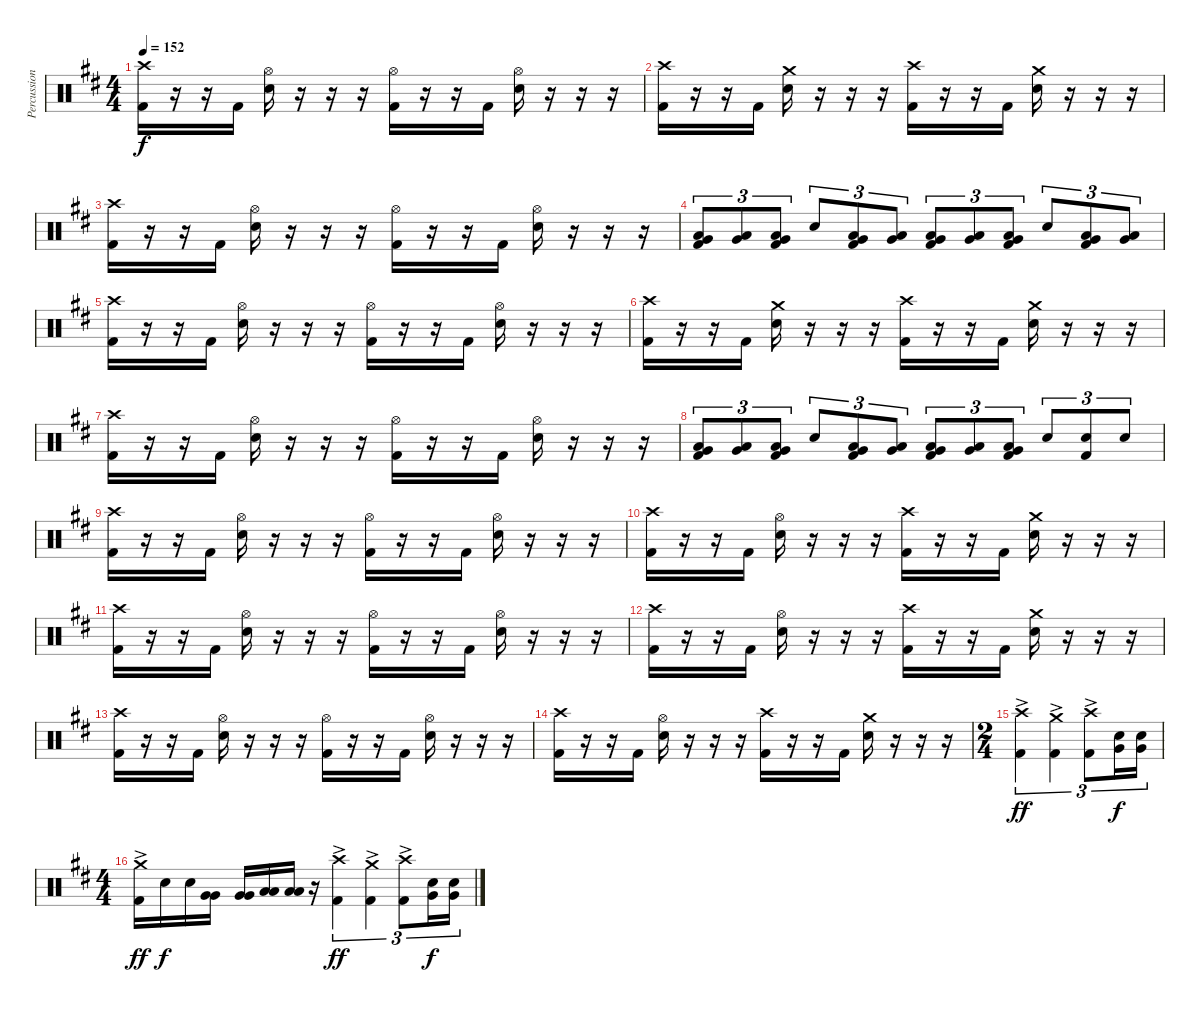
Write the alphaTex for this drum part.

\track ("Percussion" "Percussion") {instrument percussion}
\staff {score}
\articulation defaults
\ts (4 4)
\tempo 152
\clef neutral
\ks d
("Crash high (hit)" "Kick (hit) 2").16{dy f} r.16 r.16 "Kick (hit) 2".16 ("Hi-Hat (open)" "Snare (hit) 2").16 r.16 r.16 r.16 ("Hi-Hat (open)" "Kick (hit) 2").16 r.16 r.16 "Kick (hit) 2".16 ("Hi-Hat (open)" "Snare (hit) 2").16 r.16 r.16 r.16 |
("Crash high (hit)" "Kick (hit) 2").16 r.16 r.16 "Kick (hit) 2".16 ("Crash medium (hit)" "Snare (hit) 2").16 r.16 r.16 r.16 ("Crash high (hit)" "Kick (hit) 2").16 r.16 r.16 "Kick (hit) 2".16 ("Crash medium (hit)" "Snare (hit) 2").16 r.16 r.16 r.16 |
("Crash high (hit)" "Kick (hit) 2").16 r.16 r.16 "Kick (hit) 2".16 ("Hi-Hat (open)" "Snare (hit) 2").16 r.16 r.16 r.16 ("Hi-Hat (open)" "Kick (hit) 2").16 r.16 r.16 "Kick (hit) 2".16 ("Hi-Hat (open)" "Snare (hit) 2").16 r.16 r.16 r.16 |
("Very Low Tom (hit)" "Low Floor Tom (hit)" "Kick (hit) 2").8{tu (3 2)} ("Very Low Tom (hit)" "Low Floor Tom (hit)").8{tu (3 2)} ("Very Low Tom (hit)" "Low Floor Tom (hit)" "Kick (hit) 2").8{tu (3 2)} "Snare (hit) 2".8{tu (3 2)} ("Very Low Tom (hit)" "Low Floor Tom (hit)" "Kick (hit) 2").8{tu (3 2)} ("Very Low Tom (hit)" "Low Floor Tom (hit)").8{tu (3 2)} ("Very Low Tom (hit)" "Low Floor Tom (hit)" "Kick (hit) 2").8{tu (3 2)} ("Very Low Tom (hit)" "Low Floor Tom (hit)").8{tu (3 2)} ("Very Low Tom (hit)" "Low Floor Tom (hit)" "Kick (hit) 2").8{tu (3 2)} "Snare (hit) 2".8{tu (3 2)} ("Very Low Tom (hit)" "Low Floor Tom (hit)" "Kick (hit) 2").8{tu (3 2)} ("Very Low Tom (hit)" "Low Floor Tom (hit)").8{tu (3 2)} |
("Crash high (hit)" "Kick (hit) 2").16 r.16 r.16 "Kick (hit) 2".16 ("Hi-Hat (open)" "Snare (hit) 2").16 r.16 r.16 r.16 ("Hi-Hat (open)" "Kick (hit) 2").16 r.16 r.16 "Kick (hit) 2".16 ("Hi-Hat (open)" "Snare (hit) 2").16 r.16 r.16 r.16 |
("Crash high (hit)" "Kick (hit) 2").16 r.16 r.16 "Kick (hit) 2".16 ("Crash medium (hit)" "Snare (hit) 2").16 r.16 r.16 r.16 ("Crash high (hit)" "Kick (hit) 2").16 r.16 r.16 "Kick (hit) 2".16 ("Crash medium (hit)" "Snare (hit) 2").16 r.16 r.16 r.16 |
("Crash high (hit)" "Kick (hit) 2").16 r.16 r.16 "Kick (hit) 2".16 ("Hi-Hat (open)" "Snare (hit) 2").16 r.16 r.16 r.16 ("Hi-Hat (open)" "Kick (hit) 2").16 r.16 r.16 "Kick (hit) 2".16 ("Hi-Hat (open)" "Snare (hit) 2").16 r.16 r.16 r.16 |
("Very Low Tom (hit)" "Low Floor Tom (hit)" "Kick (hit) 2").8{tu (3 2)} ("Very Low Tom (hit)" "Low Floor Tom (hit)").8{tu (3 2)} ("Very Low Tom (hit)" "Low Floor Tom (hit)" "Kick (hit) 2").8{tu (3 2)} "Snare (hit) 2".8{tu (3 2)} ("Very Low Tom (hit)" "Low Floor Tom (hit)" "Kick (hit) 2").8{tu (3 2)} ("Very Low Tom (hit)" "Low Floor Tom (hit)").8{tu (3 2)} ("Very Low Tom (hit)" "Low Floor Tom (hit)" "Kick (hit) 2").8{tu (3 2)} ("Very Low Tom (hit)" "Low Floor Tom (hit)").8{tu (3 2)} ("Very Low Tom (hit)" "Low Floor Tom (hit)" "Kick (hit) 2").8{tu (3 2)} "Snare (hit) 2".8{tu (3 2)} ("Snare (hit) 2" "Kick (hit) 2").8{tu (3 2)} "Snare (hit) 2".8{tu (3 2)} |
("Crash high (hit)" "Kick (hit) 2").16 r.16 r.16 "Kick (hit) 2".16 ("Hi-Hat (open)" "Snare (hit) 2").16 r.16 r.16 r.16 ("Hi-Hat (open)" "Kick (hit) 2").16 r.16 r.16 "Kick (hit) 2".16 ("Hi-Hat (open)" "Snare (hit) 2").16 r.16 r.16 r.16 |
("Crash high (hit)" "Kick (hit) 2").16 r.16 r.16 "Kick (hit) 2".16 ("Hi-Hat (open)" "Snare (hit) 2").16 r.16 r.16 r.16 ("Crash high (hit)" "Kick (hit) 2").16 r.16 r.16 "Kick (hit) 2".16 ("Crash medium (hit)" "Snare (hit) 2").16 r.16 r.16 r.16 |
("Crash high (hit)" "Kick (hit) 2").16 r.16 r.16 "Kick (hit) 2".16 ("Hi-Hat (open)" "Snare (hit) 2").16 r.16 r.16 r.16 ("Hi-Hat (open)" "Kick (hit) 2").16 r.16 r.16 "Kick (hit) 2".16 ("Hi-Hat (open)" "Snare (hit) 2").16 r.16 r.16 r.16 |
("Crash high (hit)" "Kick (hit) 2").16 r.16 r.16 "Kick (hit) 2".16 ("Hi-Hat (open)" "Snare (hit) 2").16 r.16 r.16 r.16 ("Crash high (hit)" "Kick (hit) 2").16 r.16 r.16 "Kick (hit) 2".16 ("Crash medium (hit)" "Snare (hit) 2").16 r.16 r.16 r.16 |
("Crash high (hit)" "Kick (hit) 2").16 r.16 r.16 "Kick (hit) 2".16 ("Hi-Hat (open)" "Snare (hit) 2").16 r.16 r.16 r.16 ("Hi-Hat (open)" "Kick (hit) 2").16 r.16 r.16 "Kick (hit) 2".16 ("Hi-Hat (open)" "Snare (hit) 2").16 r.16 r.16 r.16 |
("Crash high (hit)" "Kick (hit) 2").16 r.16 r.16 "Kick (hit) 2".16 ("Hi-Hat (open)" "Snare (hit) 2").16 r.16 r.16 r.16 ("Crash high (hit)" "Kick (hit) 2").16 r.16 r.16 "Kick (hit) 2".16 ("Crash medium (hit)" "Snare (hit) 2").16 r.16 r.16 r.16 |
\ts (2 4)
("Crash high (hit)"{ac} "Kick (hit) 2"{ac}).4{tu (3 2) dy ff} ("Crash medium (hit)"{ac} "Kick (hit) 2"{ac}).4{tu (3 2)} ("Crash high (hit)"{ac} "Kick (hit) 2"{ac}).8{tu (3 2)} ("Very Low Tom (hit)" "Snare (hit) 2").16{tu (3 2) dy f} ("Very Low Tom (hit)" "Snare (hit) 2").16{tu (3 2)} |
\ts (4 4)
("Crash medium (hit)"{ac} "Kick (hit) 2"{ac}).16{dy ff} "Snare (hit) 2".16{dy f} "Snare (hit) 2".16 ("Very Low Tom (hit)" "Very Low Tom (hit)").16 ("Very Low Tom (hit)" "Very Low Tom (hit)").16 ("Low Tom (hit)" "Low Tom (hit)").16 ("Low Tom (hit)" "Low Tom (hit)").16 r.16 ("Crash high (hit)"{ac} "Kick (hit) 2"{ac}).4{tu (3 2) dy ff} ("Crash medium (hit)"{ac} "Kick (hit) 2"{ac}).4{tu (3 2)} ("Crash high (hit)"{ac} "Kick (hit) 2"{ac}).8{tu (3 2)} ("Very Low Tom (hit)" "Snare (hit) 2").16{tu (3 2) dy f} ("Very Low Tom (hit)" "Snare (hit) 2").16{tu (3 2)}
